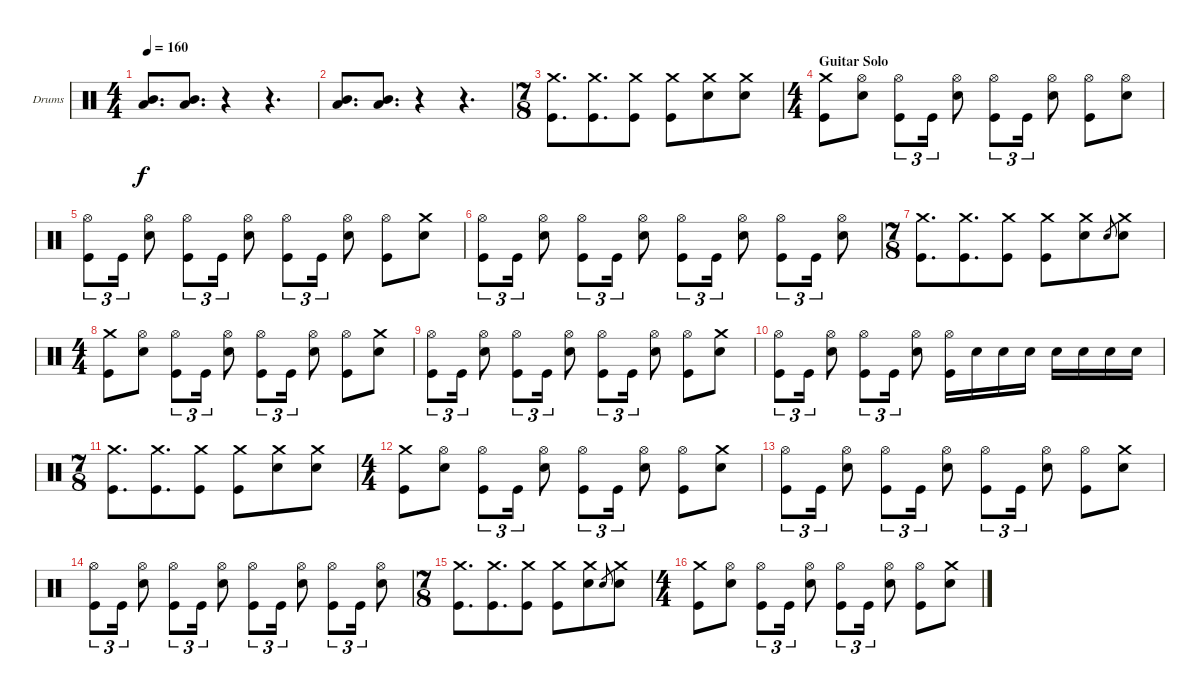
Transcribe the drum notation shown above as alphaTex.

\bracketExtendMode groupsimilarinstruments
\firstSystemTrackNameOrientation horizontal
\otherSystemsTrackNameOrientation horizontal
\track ("Drums" "Drums") {instrument percussion}
\staff {score}
\articulation defaults
\ts (4 4)
\tempo 160
\clef neutral
\ks c
("Low Tom (hit)" "Mid Tom (hit)").8{d dy f} ("Low Tom (hit)" "Mid Tom (hit)").8{d} r.4 r.4{d} |
("Low Tom (hit)" "Mid Tom (hit)").8{d} ("Low Tom (hit)" "Mid Tom (hit)").8{d} r.4 r.4{d} |
\ts (7 8)
("Crash medium (hit)" "Kick (hit)").8{d} ("Crash medium (hit)" "Kick (hit)").8{d} ("Crash medium (hit)" "Kick (hit)").8 ("Crash medium (hit)" "Kick (hit)").8 ("Crash medium (hit)" "Snare (hit) 2").8 ("Crash medium (hit)" "Snare (hit) 2").8 |
\ts (4 4)
\section ("" "Guitar Solo")
("Kick (hit)" "Crash medium (hit)").8 ("Hi-Hat (open)" "Snare (hit) 2").8 ("Hi-Hat (open)" "Kick (hit)").8{tu (3 2)} "Kick (hit)".16{tu (3 2)} ("Hi-Hat (open)" "Snare (hit) 2").8 ("Hi-Hat (open)" "Kick (hit)").8{tu (3 2)} "Kick (hit)".16{tu (3 2)} ("Hi-Hat (open)" "Snare (hit) 2").8 ("Hi-Hat (open)" "Kick (hit)").8 ("Hi-Hat (open)" "Snare (hit) 2").8 |
("Hi-Hat (open)" "Kick (hit)").8{tu (3 2)} "Kick (hit)".16{tu (3 2)} ("Hi-Hat (open)" "Snare (hit) 2").8 ("Hi-Hat (open)" "Kick (hit)").8{tu (3 2)} "Kick (hit)".16{tu (3 2)} ("Hi-Hat (open)" "Snare (hit) 2").8 ("Hi-Hat (open)" "Kick (hit)").8{tu (3 2)} "Kick (hit)".16{tu (3 2)} ("Hi-Hat (open)" "Snare (hit) 2").8 ("Hi-Hat (open)" "Kick (hit)").8 ("Snare (hit) 2" "Crash medium (hit)").8 |
("Hi-Hat (open)" "Kick (hit)").8{tu (3 2)} "Kick (hit)".16{tu (3 2)} ("Snare (hit) 2" "Hi-Hat (open)").8 ("Hi-Hat (open)" "Kick (hit)").8{tu (3 2)} "Kick (hit)".16{tu (3 2)} ("Hi-Hat (open)" "Snare (hit) 2").8 ("Hi-Hat (open)" "Kick (hit)").8{tu (3 2)} "Kick (hit)".16{tu (3 2)} ("Hi-Hat (open)" "Snare (hit) 2").8 ("Hi-Hat (open)" "Kick (hit)").8{tu (3 2)} "Kick (hit)".16{tu (3 2)} ("Hi-Hat (open)" "Snare (hit) 2").8 |
\ts (7 8)
("Crash medium (hit)" "Kick (hit)").8{d} ("Crash medium (hit)" "Kick (hit)").8{d} ("Crash medium (hit)" "Kick (hit)").8 ("Crash medium (hit)" "Kick (hit)").8 ("Crash medium (hit)" "Snare (hit) 2").8 "Snare (hit) 2".8{gr} ("Crash medium (hit)" "Snare (hit) 2").8 |
\ts (4 4)
("Kick (hit)" "Crash medium (hit)").8 ("Hi-Hat (open)" "Snare (hit) 2").8 ("Hi-Hat (open)" "Kick (hit)").8{tu (3 2)} "Kick (hit)".16{tu (3 2)} ("Hi-Hat (open)" "Snare (hit) 2").8 ("Hi-Hat (open)" "Kick (hit)").8{tu (3 2)} "Kick (hit)".16{tu (3 2)} ("Hi-Hat (open)" "Snare (hit) 2").8 ("Hi-Hat (open)" "Kick (hit)").8 ("Snare (hit) 2" "Crash medium (hit)").8 |
("Hi-Hat (open)" "Kick (hit)").8{tu (3 2)} "Kick (hit)".16{tu (3 2)} ("Hi-Hat (open)" "Snare (hit) 2").8 ("Hi-Hat (open)" "Kick (hit)").8{tu (3 2)} "Kick (hit)".16{tu (3 2)} ("Hi-Hat (open)" "Snare (hit) 2").8 ("Hi-Hat (open)" "Kick (hit)").8{tu (3 2)} "Kick (hit)".16{tu (3 2)} ("Hi-Hat (open)" "Snare (hit) 2").8 ("Hi-Hat (open)" "Kick (hit)").8 ("Snare (hit) 2" "Crash medium (hit)").8 |
("Hi-Hat (open)" "Kick (hit)").8{tu (3 2)} "Kick (hit)".16{tu (3 2)} ("Snare (hit) 2" "Hi-Hat (open)").8 ("Hi-Hat (open)" "Kick (hit)").8{tu (3 2)} "Kick (hit)".16{tu (3 2)} ("Hi-Hat (open)" "Snare (hit) 2").8 ("Hi-Hat (open)" "Kick (hit)").16 "Snare (hit) 2".16 "Snare (hit) 2".16 "Snare (hit) 2".16 "Snare (hit) 2".16 "Snare (hit) 2".16 "Snare (hit) 2".16 "Snare (hit) 2".16 |
\ts (7 8)
("Crash medium (hit)" "Kick (hit)").8{d} ("Crash medium (hit)" "Kick (hit)").8{d} ("Crash medium (hit)" "Kick (hit)").8 ("Crash medium (hit)" "Kick (hit)").8 ("Crash medium (hit)" "Snare (hit) 2").8 ("Crash medium (hit)" "Snare (hit) 2").8 |
\ts (4 4)
("Kick (hit)" "Crash medium (hit)").8 ("Hi-Hat (open)" "Snare (hit) 2").8 ("Hi-Hat (open)" "Kick (hit)").8{tu (3 2)} "Kick (hit)".16{tu (3 2)} ("Hi-Hat (open)" "Snare (hit) 2").8 ("Hi-Hat (open)" "Kick (hit)").8{tu (3 2)} "Kick (hit)".16{tu (3 2)} ("Hi-Hat (open)" "Snare (hit) 2").8 ("Hi-Hat (open)" "Kick (hit)").8 ("Snare (hit) 2" "Crash medium (hit)").8 |
("Hi-Hat (open)" "Kick (hit)").8{tu (3 2)} "Kick (hit)".16{tu (3 2)} ("Hi-Hat (open)" "Snare (hit) 2").8 ("Hi-Hat (open)" "Kick (hit)").8{tu (3 2)} "Kick (hit)".16{tu (3 2)} ("Hi-Hat (open)" "Snare (hit) 2").8 ("Hi-Hat (open)" "Kick (hit)").8{tu (3 2)} "Kick (hit)".16{tu (3 2)} ("Hi-Hat (open)" "Snare (hit) 2").8 ("Hi-Hat (open)" "Kick (hit)").8 ("Snare (hit) 2" "Crash medium (hit)").8 |
("Hi-Hat (open)" "Kick (hit)").8{tu (3 2)} "Kick (hit)".16{tu (3 2)} ("Snare (hit) 2" "Hi-Hat (open)").8 ("Hi-Hat (open)" "Kick (hit)").8{tu (3 2)} "Kick (hit)".16{tu (3 2)} ("Hi-Hat (open)" "Snare (hit) 2").8 ("Hi-Hat (open)" "Kick (hit)").8{tu (3 2)} "Kick (hit)".16{tu (3 2)} ("Hi-Hat (open)" "Snare (hit) 2").8 ("Hi-Hat (open)" "Kick (hit)").8{tu (3 2)} "Kick (hit)".16{tu (3 2)} ("Hi-Hat (open)" "Snare (hit) 2").8 |
\ts (7 8)
("Crash medium (hit)" "Kick (hit)").8{d} ("Crash medium (hit)" "Kick (hit)").8{d} ("Crash medium (hit)" "Kick (hit)").8 ("Crash medium (hit)" "Kick (hit)").8 ("Crash medium (hit)" "Snare (hit) 2").8 "Snare (hit) 2".8{gr} ("Crash medium (hit)" "Snare (hit) 2").8 |
\ts (4 4)
("Kick (hit)" "Crash medium (hit)").8 ("Hi-Hat (open)" "Snare (hit) 2").8 ("Hi-Hat (open)" "Kick (hit)").8{tu (3 2)} "Kick (hit)".16{tu (3 2)} ("Hi-Hat (open)" "Snare (hit) 2").8 ("Hi-Hat (open)" "Kick (hit)").8{tu (3 2)} "Kick (hit)".16{tu (3 2)} ("Hi-Hat (open)" "Snare (hit) 2").8 ("Hi-Hat (open)" "Kick (hit)").8 ("Snare (hit) 2" "Crash medium (hit)").8
